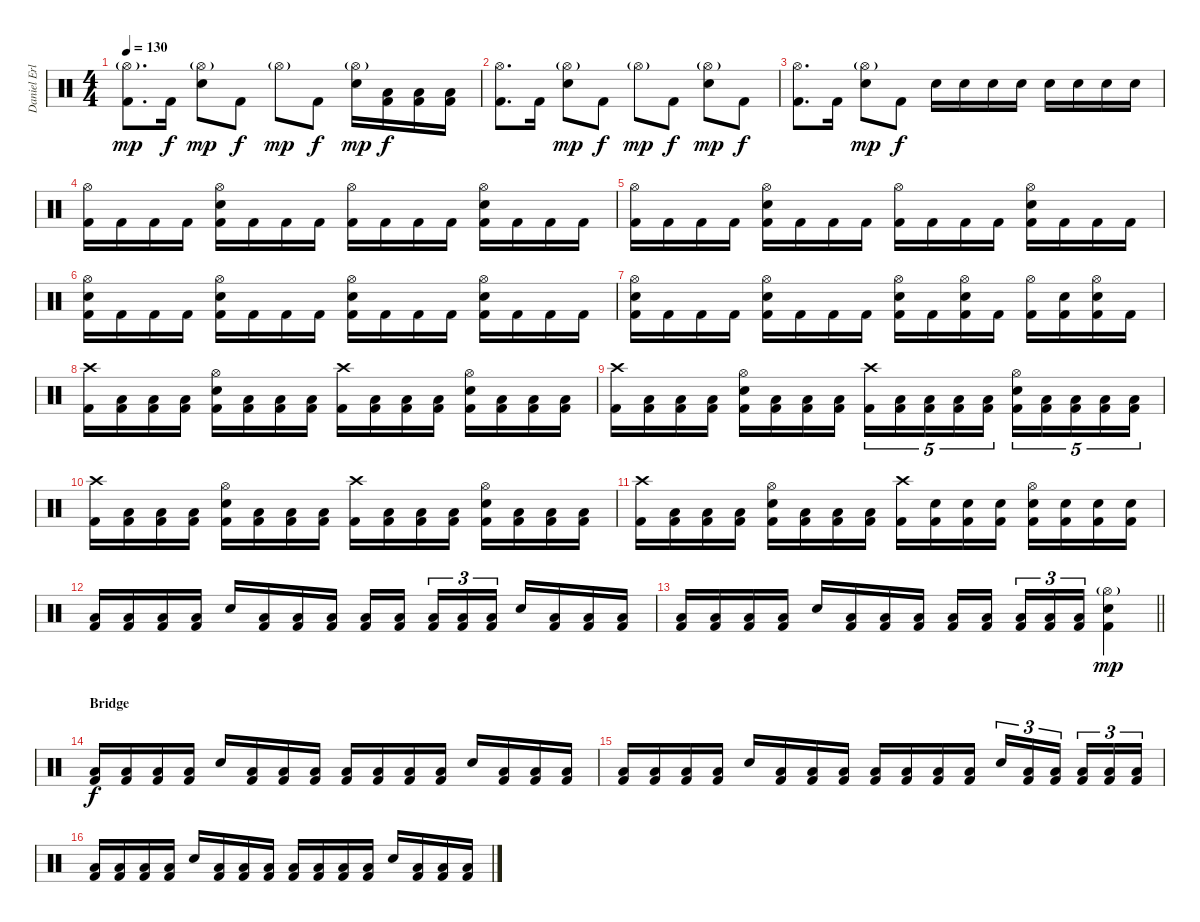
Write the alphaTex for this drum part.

\track ("Daniel Erlandsson" "Daniel Erl") {instrument percussion}
\staff {score}
\articulation defaults
\ts (4 4)
\tempo 130
\clef neutral
\ks c
("Hi-Hat (open)"{g} "Kick (hit) 2").8{d dy mp} "Kick (hit) 2".16{dy f} ("Hi-Hat (open)"{g} "Snare (hit) 2").8{dy mp} "Kick (hit) 2".8{dy f} "Hi-Hat (open)"{g}.8{dy mp} "Kick (hit) 2".8{dy f} ("Hi-Hat (open)"{g} "Snare (hit) 2").16{dy mp} ("Low Floor Tom (hit)" "Kick (hit) 2").16{dy f} ("Low Floor Tom (hit)" "Kick (hit) 2").16 ("Low Floor Tom (hit)" "Kick (hit) 2").16 |
("Hi-Hat (open)" "Kick (hit) 2").8{d} "Kick (hit) 2".16 ("Hi-Hat (open)"{g} "Snare (hit) 2").8{dy mp} "Kick (hit) 2".8{dy f} "Hi-Hat (open)"{g}.8{dy mp} "Kick (hit) 2".8{dy f} ("Hi-Hat (open)"{g} "Snare (hit) 2").8{dy mp} "Kick (hit) 2".8{dy f} |
("Hi-Hat (open)" "Kick (hit) 2").8{d} "Kick (hit) 2".16 ("Hi-Hat (open)"{g} "Snare (hit) 2").8{dy mp} "Kick (hit) 2".8{dy f} "Snare (hit) 2".16 "Snare (hit) 2".16 "Snare (hit) 2".16 "Snare (hit) 2".16 "Snare (hit) 2".16 "Snare (hit) 2".16 "Snare (hit) 2".16 "Snare (hit) 2".16 |
("Hi-Hat (open)" "Kick (hit) 2").16 "Kick (hit) 2".16 "Kick (hit) 2".16 "Kick (hit) 2".16 ("Hi-Hat (open)" "Snare (hit) 2" "Kick (hit) 2").16 "Kick (hit) 2".16 "Kick (hit) 2".16 "Kick (hit) 2".16 ("Hi-Hat (open)" "Kick (hit) 2").16 "Kick (hit) 2".16 "Kick (hit) 2".16 "Kick (hit) 2".16 ("Hi-Hat (open)" "Snare (hit) 2" "Kick (hit) 2").16 "Kick (hit) 2".16 "Kick (hit) 2".16 "Kick (hit) 2".16 |
("Hi-Hat (open)" "Kick (hit) 2").16 "Kick (hit) 2".16 "Kick (hit) 2".16 "Kick (hit) 2".16 ("Hi-Hat (open)" "Snare (hit) 2" "Kick (hit) 2").16 "Kick (hit) 2".16 "Kick (hit) 2".16 "Kick (hit) 2".16 ("Hi-Hat (open)" "Kick (hit) 2").16 "Kick (hit) 2".16 "Kick (hit) 2".16 "Kick (hit) 2".16 ("Hi-Hat (open)" "Snare (hit) 2" "Kick (hit) 2").16 "Kick (hit) 2".16 "Kick (hit) 2".16 "Kick (hit) 2".16 |
("Hi-Hat (open)" "Snare (hit) 2" "Kick (hit) 2").16 "Kick (hit) 2".16 "Kick (hit) 2".16 "Kick (hit) 2".16 ("Hi-Hat (open)" "Snare (hit) 2" "Kick (hit) 2").16 "Kick (hit) 2".16 "Kick (hit) 2".16 "Kick (hit) 2".16 ("Hi-Hat (open)" "Snare (hit) 2" "Kick (hit) 2").16 "Kick (hit) 2".16 "Kick (hit) 2".16 "Kick (hit) 2".16 ("Hi-Hat (open)" "Snare (hit) 2" "Kick (hit) 2").16 "Kick (hit) 2".16 "Kick (hit) 2".16 "Kick (hit) 2".16 |
("Hi-Hat (open)" "Snare (hit) 2" "Kick (hit) 2").16 "Kick (hit) 2".16 "Kick (hit) 2".16 "Kick (hit) 2".16 ("Hi-Hat (open)" "Snare (hit) 2" "Kick (hit) 2").16 "Kick (hit) 2".16 "Kick (hit) 2".16 "Kick (hit) 2".16 ("Hi-Hat (open)" "Snare (hit) 2" "Kick (hit) 2").16 "Kick (hit) 2".16 ("Hi-Hat (open)" "Snare (hit) 2" "Kick (hit) 2").16 "Kick (hit) 2".16 ("Hi-Hat (open)" "Kick (hit) 2").16 ("Snare (hit) 2" "Kick (hit) 2").16 ("Hi-Hat (open)" "Snare (hit) 2" "Kick (hit) 2").16 "Kick (hit) 2".16 |
("Crash high (hit)" "Kick (hit) 2").16 ("Low Tom (hit)" "Kick (hit) 2").16 ("Low Tom (hit)" "Kick (hit) 2").16 ("Low Tom (hit)" "Kick (hit) 2").16 ("Hi-Hat (open)" "Snare (hit) 2" "Kick (hit) 2").16 ("Low Tom (hit)" "Kick (hit) 2").16 ("Low Tom (hit)" "Kick (hit) 2").16 ("Low Tom (hit)" "Kick (hit) 2").16 ("Crash high (hit)" "Kick (hit) 2").16 ("Low Tom (hit)" "Kick (hit) 2").16 ("Low Tom (hit)" "Kick (hit) 2").16 ("Low Tom (hit)" "Kick (hit) 2").16 ("Hi-Hat (open)" "Snare (hit) 2" "Kick (hit) 2").16 ("Low Tom (hit)" "Kick (hit) 2").16 ("Low Tom (hit)" "Kick (hit) 2").16 ("Low Tom (hit)" "Kick (hit) 2").16 |
("Crash high (hit)" "Kick (hit) 2").16 ("Low Tom (hit)" "Kick (hit) 2").16 ("Low Tom (hit)" "Kick (hit) 2").16 ("Low Tom (hit)" "Kick (hit) 2").16 ("Hi-Hat (open)" "Snare (hit) 2" "Kick (hit) 2").16 ("Low Tom (hit)" "Kick (hit) 2").16 ("Low Tom (hit)" "Kick (hit) 2").16 ("Low Tom (hit)" "Kick (hit) 2").16 ("Crash high (hit)" "Kick (hit) 2").16{tu (5 4)} ("Low Tom (hit)" "Kick (hit) 2").16{tu (5 4)} ("Low Tom (hit)" "Kick (hit) 2").16{tu (5 4)} ("Low Tom (hit)" "Kick (hit) 2").16{tu (5 4)} ("Low Tom (hit)" "Kick (hit) 2").16{tu (5 4)} ("Hi-Hat (open)" "Snare (hit) 2" "Kick (hit) 2").16{tu (5 4)} ("Low Tom (hit)" "Kick (hit) 2").16{tu (5 4)} ("Low Tom (hit)" "Kick (hit) 2").16{tu (5 4)} ("Low Tom (hit)" "Kick (hit) 2").16{tu (5 4)} ("Low Tom (hit)" "Kick (hit) 2").16{tu (5 4)} |
("Crash high (hit)" "Kick (hit) 2").16 ("Low Tom (hit)" "Kick (hit) 2").16 ("Low Tom (hit)" "Kick (hit) 2").16 ("Low Tom (hit)" "Kick (hit) 2").16 ("Hi-Hat (open)" "Snare (hit) 2" "Kick (hit) 2").16 ("Low Tom (hit)" "Kick (hit) 2").16 ("Low Tom (hit)" "Kick (hit) 2").16 ("Low Tom (hit)" "Kick (hit) 2").16 ("Crash high (hit)" "Kick (hit) 2").16 ("Low Tom (hit)" "Kick (hit) 2").16 ("Low Tom (hit)" "Kick (hit) 2").16 ("Low Tom (hit)" "Kick (hit) 2").16 ("Hi-Hat (open)" "Snare (hit) 2" "Kick (hit) 2").16 ("Low Tom (hit)" "Kick (hit) 2").16 ("Low Tom (hit)" "Kick (hit) 2").16 ("Low Tom (hit)" "Kick (hit) 2").16 |
("Crash high (hit)" "Kick (hit) 2").16 ("Low Tom (hit)" "Kick (hit) 2").16 ("Low Tom (hit)" "Kick (hit) 2").16 ("Low Tom (hit)" "Kick (hit) 2").16 ("Hi-Hat (open)" "Snare (hit) 2" "Kick (hit) 2").16 ("Low Tom (hit)" "Kick (hit) 2").16 ("Low Tom (hit)" "Kick (hit) 2").16 ("Low Tom (hit)" "Kick (hit) 2").16 ("Crash high (hit)" "Kick (hit) 2").16 ("Snare (hit) 2" "Kick (hit) 2").16 ("Snare (hit) 2" "Kick (hit) 2").16 ("Snare (hit) 2" "Kick (hit) 2").16 ("Hi-Hat (open)" "Snare (hit) 2" "Kick (hit) 2").16 ("Snare (hit) 2" "Kick (hit) 2").16 ("Snare (hit) 2" "Kick (hit) 2").16 ("Snare (hit) 2" "Kick (hit) 2").16 |
("Low Floor Tom (hit)" "Kick (hit) 2").16 ("Low Floor Tom (hit)" "Kick (hit) 2").16 ("Low Floor Tom (hit)" "Kick (hit) 2").16 ("Low Floor Tom (hit)" "Kick (hit) 2").16 "Snare (hit) 2".16 ("Low Floor Tom (hit)" "Kick (hit) 2").16 ("Low Floor Tom (hit)" "Kick (hit) 2").16 ("Low Floor Tom (hit)" "Kick (hit) 2").16 ("Low Floor Tom (hit)" "Kick (hit) 2").16 ("Low Floor Tom (hit)" "Kick (hit) 2").16{beam splitsecondary} ("Low Floor Tom (hit)" "Kick (hit) 2").16{tu (3 2)} ("Low Floor Tom (hit)" "Kick (hit) 2").16{tu (3 2)} ("Low Floor Tom (hit)" "Kick (hit) 2").16{tu (3 2)} "Snare (hit) 2".16 ("Low Floor Tom (hit)" "Kick (hit) 2").16 ("Low Floor Tom (hit)" "Kick (hit) 2").16 ("Low Floor Tom (hit)" "Kick (hit) 2").16 |
\barLineRight lightlight
("Low Floor Tom (hit)" "Kick (hit) 2").16 ("Low Floor Tom (hit)" "Kick (hit) 2").16 ("Low Floor Tom (hit)" "Kick (hit) 2").16 ("Low Floor Tom (hit)" "Kick (hit) 2").16 "Snare (hit) 2".16 ("Low Floor Tom (hit)" "Kick (hit) 2").16 ("Low Floor Tom (hit)" "Kick (hit) 2").16 ("Low Floor Tom (hit)" "Kick (hit) 2").16 ("Low Floor Tom (hit)" "Kick (hit) 2").16 ("Low Floor Tom (hit)" "Kick (hit) 2").16{beam splitsecondary} ("Low Floor Tom (hit)" "Kick (hit) 2").16{tu (3 2)} ("Low Floor Tom (hit)" "Kick (hit) 2").16{tu (3 2)} ("Low Floor Tom (hit)" "Kick (hit) 2").16{tu (3 2)} ("Hi-Hat (open)"{g} "Snare (hit) 2" "Kick (hit) 2").4{dy mp} |
\section ("" "Bridge")
("Low Floor Tom (hit)" "Kick (hit) 2").16{dy f} ("Low Floor Tom (hit)" "Kick (hit) 2").16 ("Low Floor Tom (hit)" "Kick (hit) 2").16 ("Low Floor Tom (hit)" "Kick (hit) 2").16 "Snare (hit) 2".16 ("Low Floor Tom (hit)" "Kick (hit) 2").16 ("Low Floor Tom (hit)" "Kick (hit) 2").16 ("Low Floor Tom (hit)" "Kick (hit) 2").16 ("Low Floor Tom (hit)" "Kick (hit) 2").16 ("Low Floor Tom (hit)" "Kick (hit) 2").16 ("Low Floor Tom (hit)" "Kick (hit) 2").16 ("Low Floor Tom (hit)" "Kick (hit) 2").16 "Snare (hit) 2".16 ("Low Floor Tom (hit)" "Kick (hit) 2").16 ("Low Floor Tom (hit)" "Kick (hit) 2").16 ("Low Floor Tom (hit)" "Kick (hit) 2").16 |
("Low Floor Tom (hit)" "Kick (hit) 2").16 ("Low Floor Tom (hit)" "Kick (hit) 2").16 ("Low Floor Tom (hit)" "Kick (hit) 2").16 ("Low Floor Tom (hit)" "Kick (hit) 2").16 "Snare (hit) 2".16 ("Low Floor Tom (hit)" "Kick (hit) 2").16 ("Low Floor Tom (hit)" "Kick (hit) 2").16 ("Low Floor Tom (hit)" "Kick (hit) 2").16 ("Low Floor Tom (hit)" "Kick (hit) 2").16 ("Low Floor Tom (hit)" "Kick (hit) 2").16 ("Low Floor Tom (hit)" "Kick (hit) 2").16 ("Low Floor Tom (hit)" "Kick (hit) 2").16 "Snare (hit) 2".16{tu (3 2)} ("Low Floor Tom (hit)" "Kick (hit) 2").16{tu (3 2)} ("Low Floor Tom (hit)" "Kick (hit) 2").16{tu (3 2) beam splitsecondary} ("Low Floor Tom (hit)" "Kick (hit) 2").16{tu (3 2)} ("Low Floor Tom (hit)" "Kick (hit) 2").16{tu (3 2)} ("Low Floor Tom (hit)" "Kick (hit) 2").16{tu (3 2)} |
("Low Floor Tom (hit)" "Kick (hit) 2").16 ("Low Floor Tom (hit)" "Kick (hit) 2").16 ("Low Floor Tom (hit)" "Kick (hit) 2").16 ("Low Floor Tom (hit)" "Kick (hit) 2").16 "Snare (hit) 2".16 ("Low Floor Tom (hit)" "Kick (hit) 2").16 ("Low Floor Tom (hit)" "Kick (hit) 2").16 ("Low Floor Tom (hit)" "Kick (hit) 2").16 ("Low Floor Tom (hit)" "Kick (hit) 2").16 ("Low Floor Tom (hit)" "Kick (hit) 2").16 ("Low Floor Tom (hit)" "Kick (hit) 2").16 ("Low Floor Tom (hit)" "Kick (hit) 2").16 "Snare (hit) 2".16 ("Low Floor Tom (hit)" "Kick (hit) 2").16 ("Low Floor Tom (hit)" "Kick (hit) 2").16 ("Low Floor Tom (hit)" "Kick (hit) 2").16
